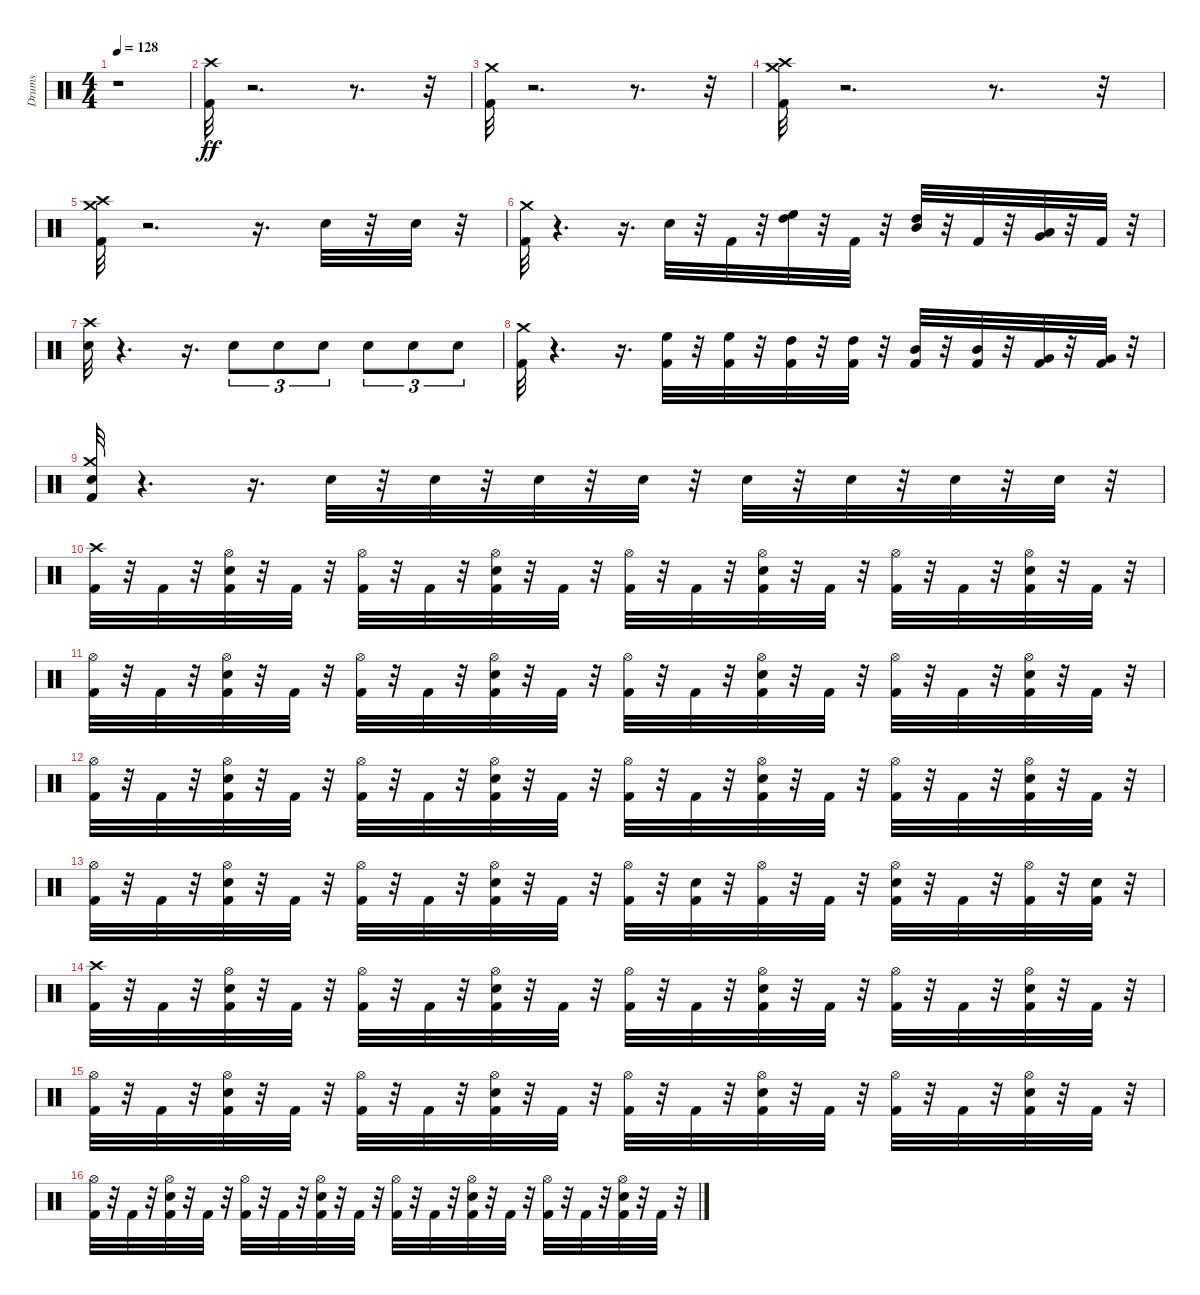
\track ("Drums" "Drums") {instrument percussion}
\staff {score}
\articulation defaults
\ts (4 4)
\tempo 128
\clef neutral
\ks c
r.1{dy ff} |
("Crash high (hit)" "Kick (hit) 2").32 r.2{d} r.8{d} r.32 |
("Crash medium (hit)" "Kick (hit) 2").32 r.2{d} r.8{d} r.32 |
("Crash high (hit)" "Kick (hit) 2" "Crash medium (hit)").32 r.2{d} r.8{d} r.32 |
("Kick (hit) 2" "Crash high (hit)" "Crash medium (hit)").32 r.2{d} r.16{d} "Snare (hit) 2".32 r.32 "Snare (hit) 2".32 r.32 |
("Crash medium (hit)" "Kick (hit) 2").32 r.4{d} r.16{d} "Snare (hit) 2".32 r.32 "Kick (hit) 2".32 r.32 ("High Tom (hit)" "High Floor Tom (hit)").32 r.32 "Kick (hit) 2".32 r.32 ("Mid Tom (hit)" "High Tom (hit)").32 r.32 "Kick (hit) 2".32 r.32 ("Very Low Tom (hit)" "Low Tom (hit)").32 r.32 "Kick (hit) 2".32 r.32 |
("Crash high (hit)" "Snare (hit) 2").32 r.4{d} r.16{d} "Snare (hit) 2".8{tu (3 2)} "Snare (hit) 2".8{tu (3 2)} "Snare (hit) 2".8{tu (3 2)} "Snare (hit) 2".8{tu (3 2)} "Snare (hit) 2".8{tu (3 2)} "Snare (hit) 2".8{tu (3 2)} |
("Crash medium (hit)" "Kick (hit) 2").32 r.4{d} r.16{d} ("High Floor Tom (hit)" "Kick (hit) 2").32 r.32 ("High Floor Tom (hit)" "Kick (hit) 2").32 r.32 ("High Tom (hit)" "Kick (hit) 2").32 r.32 ("Kick (hit) 2" "High Tom (hit)").32 r.32 ("Kick (hit) 2" "Mid Tom (hit)").32 r.32 ("Mid Tom (hit)" "Kick (hit) 2").32 r.32 ("Very Low Tom (hit)" "Kick (hit) 2").32 r.32 ("Very Low Tom (hit)" "Kick (hit) 2").32 r.32 |
("Crash medium (hit)" "Snare (hit) 2" "Kick (hit) 2").32 r.4{d} r.16{d} "Snare (hit) 2".32 r.32 "Snare (hit) 2".32 r.32 "Snare (hit) 2".32 r.32 "Snare (hit) 2".32 r.32 "Snare (hit) 2".32 r.32 "Snare (hit) 2".32 r.32 "Snare (hit) 2".32 r.32 "Snare (hit) 2".32 r.32 |
("Crash high (hit)" "Kick (hit) 2").32 r.32 "Kick (hit) 2".32 r.32 ("Kick (hit) 2" "Hi-Hat (open)" "Snare (hit) 2").32 r.32 "Kick (hit) 2".32 r.32 ("Hi-Hat (open)" "Kick (hit) 2").32 r.32 "Kick (hit) 2".32 r.32 ("Kick (hit) 2" "Hi-Hat (open)" "Snare (hit) 2").32 r.32 "Kick (hit) 2".32 r.32 ("Hi-Hat (open)" "Kick (hit) 2").32 r.32 "Kick (hit) 2".32 r.32 ("Kick (hit) 2" "Hi-Hat (open)" "Snare (hit) 2").32 r.32 "Kick (hit) 2".32 r.32 ("Hi-Hat (open)" "Kick (hit) 2").32 r.32 "Kick (hit) 2".32 r.32 ("Kick (hit) 2" "Snare (hit) 2" "Hi-Hat (open)").32 r.32 "Kick (hit) 2".32 r.32 |
("Hi-Hat (open)" "Kick (hit) 2").32 r.32 "Kick (hit) 2".32 r.32 ("Hi-Hat (open)" "Snare (hit) 2" "Kick (hit) 2").32 r.32 "Kick (hit) 2".32 r.32 ("Kick (hit) 2" "Hi-Hat (open)").32 r.32 "Kick (hit) 2".32 r.32 ("Hi-Hat (open)" "Kick (hit) 2" "Snare (hit) 2").32 r.32 "Kick (hit) 2".32 r.32 ("Kick (hit) 2" "Hi-Hat (open)").32 r.32 "Kick (hit) 2".32 r.32 ("Hi-Hat (open)" "Snare (hit) 2" "Kick (hit) 2").32 r.32 "Kick (hit) 2".32 r.32 ("Kick (hit) 2" "Hi-Hat (open)").32 r.32 "Kick (hit) 2".32 r.32 ("Kick (hit) 2" "Snare (hit) 2" "Hi-Hat (open)").32 r.32 "Kick (hit) 2".32 r.32 |
("Hi-Hat (open)" "Kick (hit) 2").32 r.32 "Kick (hit) 2".32 r.32 ("Kick (hit) 2" "Hi-Hat (open)" "Snare (hit) 2").32 r.32 "Kick (hit) 2".32 r.32 ("Hi-Hat (open)" "Kick (hit) 2").32 r.32 "Kick (hit) 2".32 r.32 ("Kick (hit) 2" "Hi-Hat (open)" "Snare (hit) 2").32 r.32 "Kick (hit) 2".32 r.32 ("Hi-Hat (open)" "Kick (hit) 2").32 r.32 "Kick (hit) 2".32 r.32 ("Hi-Hat (open)" "Snare (hit) 2" "Kick (hit) 2").32 r.32 "Kick (hit) 2".32 r.32 ("Kick (hit) 2" "Hi-Hat (open)").32 r.32 "Kick (hit) 2".32 r.32 ("Hi-Hat (open)" "Snare (hit) 2" "Kick (hit) 2").32 r.32 "Kick (hit) 2".32 r.32 |
("Kick (hit) 2" "Hi-Hat (open)").32 r.32 "Kick (hit) 2".32 r.32 ("Hi-Hat (open)" "Kick (hit) 2" "Snare (hit) 2").32 r.32 "Kick (hit) 2".32 r.32 ("Kick (hit) 2" "Hi-Hat (open)").32 r.32 "Kick (hit) 2".32 r.32 ("Hi-Hat (open)" "Snare (hit) 2" "Kick (hit) 2").32 r.32 "Kick (hit) 2".32 r.32 ("Kick (hit) 2" "Hi-Hat (open)").32 r.32 ("Snare (hit) 2" "Kick (hit) 2").32 r.32 ("Hi-Hat (open)" "Kick (hit) 2").32 r.32 "Kick (hit) 2".32 r.32 ("Hi-Hat (open)" "Snare (hit) 2" "Kick (hit) 2").32 r.32 "Kick (hit) 2".32 r.32 ("Kick (hit) 2" "Hi-Hat (open)").32 r.32 ("Snare (hit) 2" "Kick (hit) 2").32 r.32 |
("Crash high (hit)" "Kick (hit) 2").32 r.32 "Kick (hit) 2".32 r.32 ("Hi-Hat (open)" "Kick (hit) 2" "Snare (hit) 2").32 r.32 "Kick (hit) 2".32 r.32 ("Hi-Hat (open)" "Kick (hit) 2").32 r.32 "Kick (hit) 2".32 r.32 ("Kick (hit) 2" "Hi-Hat (open)" "Snare (hit) 2").32 r.32 "Kick (hit) 2".32 r.32 ("Kick (hit) 2" "Hi-Hat (open)").32 r.32 "Kick (hit) 2".32 r.32 ("Hi-Hat (open)" "Snare (hit) 2" "Kick (hit) 2").32 r.32 "Kick (hit) 2".32 r.32 ("Kick (hit) 2" "Hi-Hat (open)").32 r.32 "Kick (hit) 2".32 r.32 ("Hi-Hat (open)" "Snare (hit) 2" "Kick (hit) 2").32 r.32 "Kick (hit) 2".32 r.32 |
("Hi-Hat (open)" "Kick (hit) 2").32 r.32 "Kick (hit) 2".32 r.32 ("Snare (hit) 2" "Hi-Hat (open)" "Kick (hit) 2").32 r.32 "Kick (hit) 2".32 r.32 ("Hi-Hat (open)" "Kick (hit) 2").32 r.32 "Kick (hit) 2".32 r.32 ("Snare (hit) 2" "Kick (hit) 2" "Hi-Hat (open)").32 r.32 "Kick (hit) 2".32 r.32 ("Kick (hit) 2" "Hi-Hat (open)").32 r.32 "Kick (hit) 2".32 r.32 ("Kick (hit) 2" "Snare (hit) 2" "Hi-Hat (open)").32 r.32 "Kick (hit) 2".32 r.32 ("Kick (hit) 2" "Hi-Hat (open)").32 r.32 "Kick (hit) 2".32 r.32 ("Hi-Hat (open)" "Kick (hit) 2" "Snare (hit) 2").32 r.32 "Kick (hit) 2".32 r.32 |
("Kick (hit) 2" "Hi-Hat (open)").32 r.32 "Kick (hit) 2".32 r.32 ("Hi-Hat (open)" "Kick (hit) 2" "Snare (hit) 2").32 r.32 "Kick (hit) 2".32 r.32 ("Kick (hit) 2" "Hi-Hat (open)").32 r.32 "Kick (hit) 2".32 r.32 ("Hi-Hat (open)" "Snare (hit) 2" "Kick (hit) 2").32 r.32 "Kick (hit) 2".32 r.32 ("Kick (hit) 2" "Hi-Hat (open)").32 r.32 "Kick (hit) 2".32 r.32 ("Kick (hit) 2" "Snare (hit) 2" "Hi-Hat (open)").32 r.32 "Kick (hit) 2".32 r.32 ("Hi-Hat (open)" "Kick (hit) 2").32 r.32 "Kick (hit) 2".32 r.32 ("Kick (hit) 2" "Hi-Hat (open)" "Snare (hit) 2").32 r.32 "Kick (hit) 2".32 r.32
